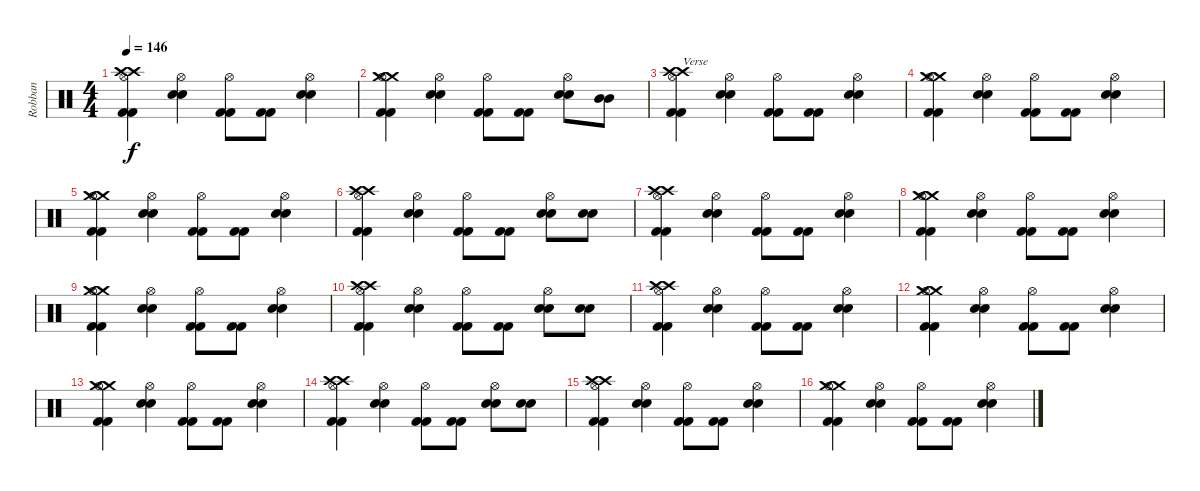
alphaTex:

\track ("Robban" "Robban") {instrument percussion}
\staff {score}
\articulation defaults
\ts (4 4)
\tempo 146
\clef neutral
\ks c
("Crash high (hit)" "Crash high (hit)" "Hi-Hat (open)" "Kick (hit) 2" "Kick (hit) 2").4{dy f} ("Hi-Hat (open)" "Electric Snare (hit)" "Electric Snare (hit)").4 ("Hi-Hat (open)" "Kick (hit) 2" "Kick (hit) 2").8 ("Kick (hit) 2" "Kick (hit) 2").8 ("Hi-Hat (open)" "Electric Snare (hit)" "Electric Snare (hit)").4 |
("Crash medium (hit)" "Crash medium (hit)" "Hi-Hat (open)" "Kick (hit) 2" "Kick (hit) 2").4 ("Hi-Hat (open)" "Electric Snare (hit)" "Electric Snare (hit)").4 ("Hi-Hat (open)" "Kick (hit) 2" "Kick (hit) 2").8 ("Kick (hit) 2" "Kick (hit) 2").8 ("Hi-Hat (open)" "Electric Snare (hit)" "Electric Snare (hit)").8 ("Mid Tom (hit)" "Mid Tom (hit)").8 |
("Crash high (hit)" "Crash high (hit)" "Hi-Hat (open)" "Kick (hit) 2" "Kick (hit) 2").4{txt "Verse"} ("Hi-Hat (open)" "Electric Snare (hit)" "Electric Snare (hit)").4 ("Hi-Hat (open)" "Kick (hit) 2" "Kick (hit) 2").8 ("Kick (hit) 2" "Kick (hit) 2").8 ("Hi-Hat (open)" "Electric Snare (hit)" "Electric Snare (hit)").4 |
("Crash medium (hit)" "Crash medium (hit)" "Hi-Hat (open)" "Kick (hit) 2" "Kick (hit) 2").4 ("Hi-Hat (open)" "Electric Snare (hit)" "Electric Snare (hit)").4 ("Hi-Hat (open)" "Kick (hit) 2" "Kick (hit) 2").8 ("Kick (hit) 2" "Kick (hit) 2").8 ("Hi-Hat (open)" "Electric Snare (hit)" "Electric Snare (hit)").4 |
("Crash medium (hit)" "Crash medium (hit)" "Hi-Hat (open)" "Kick (hit) 2" "Kick (hit) 2").4 ("Hi-Hat (open)" "Electric Snare (hit)" "Electric Snare (hit)").4 ("Hi-Hat (open)" "Kick (hit) 2" "Kick (hit) 2").8 ("Kick (hit) 2" "Kick (hit) 2").8 ("Hi-Hat (open)" "Electric Snare (hit)" "Electric Snare (hit)").4 |
("Crash high (hit)" "Crash high (hit)" "Hi-Hat (open)" "Kick (hit) 2" "Kick (hit) 2").4 ("Hi-Hat (open)" "Electric Snare (hit)" "Electric Snare (hit)").4 ("Hi-Hat (open)" "Kick (hit) 2" "Kick (hit) 2").8 ("Kick (hit) 2" "Kick (hit) 2").8 ("Hi-Hat (open)" "Electric Snare (hit)" "Electric Snare (hit)").8 ("Electric Snare (hit)" "Electric Snare (hit)").8 |
("Crash high (hit)" "Crash high (hit)" "Hi-Hat (open)" "Kick (hit) 2" "Kick (hit) 2").4 ("Hi-Hat (open)" "Electric Snare (hit)" "Electric Snare (hit)").4 ("Hi-Hat (open)" "Kick (hit) 2" "Kick (hit) 2").8 ("Kick (hit) 2" "Kick (hit) 2").8 ("Hi-Hat (open)" "Electric Snare (hit)" "Electric Snare (hit)").4 |
("Crash medium (hit)" "Crash medium (hit)" "Hi-Hat (open)" "Kick (hit) 2" "Kick (hit) 2").4 ("Hi-Hat (open)" "Electric Snare (hit)" "Electric Snare (hit)").4 ("Hi-Hat (open)" "Kick (hit) 2" "Kick (hit) 2").8 ("Kick (hit) 2" "Kick (hit) 2").8 ("Hi-Hat (open)" "Electric Snare (hit)" "Electric Snare (hit)").4 |
("Crash medium (hit)" "Crash medium (hit)" "Hi-Hat (open)" "Kick (hit) 2" "Kick (hit) 2").4 ("Hi-Hat (open)" "Electric Snare (hit)" "Electric Snare (hit)").4 ("Hi-Hat (open)" "Kick (hit) 2" "Kick (hit) 2").8 ("Kick (hit) 2" "Kick (hit) 2").8 ("Hi-Hat (open)" "Electric Snare (hit)" "Electric Snare (hit)").4 |
("Crash high (hit)" "Crash high (hit)" "Hi-Hat (open)" "Kick (hit) 2" "Kick (hit) 2").4 ("Hi-Hat (open)" "Electric Snare (hit)" "Electric Snare (hit)").4 ("Hi-Hat (open)" "Kick (hit) 2" "Kick (hit) 2").8 ("Kick (hit) 2" "Kick (hit) 2").8 ("Hi-Hat (open)" "Electric Snare (hit)" "Electric Snare (hit)").8 ("Electric Snare (hit)" "Electric Snare (hit)").8 |
("Crash high (hit)" "Crash high (hit)" "Hi-Hat (open)" "Kick (hit) 2" "Kick (hit) 2").4 ("Hi-Hat (open)" "Electric Snare (hit)" "Electric Snare (hit)").4 ("Hi-Hat (open)" "Kick (hit) 2" "Kick (hit) 2").8 ("Kick (hit) 2" "Kick (hit) 2").8 ("Hi-Hat (open)" "Electric Snare (hit)" "Electric Snare (hit)").4 |
("Crash medium (hit)" "Crash medium (hit)" "Hi-Hat (open)" "Kick (hit) 2" "Kick (hit) 2").4 ("Hi-Hat (open)" "Electric Snare (hit)" "Electric Snare (hit)").4 ("Hi-Hat (open)" "Kick (hit) 2" "Kick (hit) 2").8 ("Kick (hit) 2" "Kick (hit) 2").8 ("Hi-Hat (open)" "Electric Snare (hit)" "Electric Snare (hit)").4 |
("Crash medium (hit)" "Crash medium (hit)" "Hi-Hat (open)" "Kick (hit) 2" "Kick (hit) 2").4 ("Hi-Hat (open)" "Electric Snare (hit)" "Electric Snare (hit)").4 ("Hi-Hat (open)" "Kick (hit) 2" "Kick (hit) 2").8 ("Kick (hit) 2" "Kick (hit) 2").8 ("Hi-Hat (open)" "Electric Snare (hit)" "Electric Snare (hit)").4 |
("Crash high (hit)" "Crash high (hit)" "Hi-Hat (open)" "Kick (hit) 2" "Kick (hit) 2").4 ("Hi-Hat (open)" "Electric Snare (hit)" "Electric Snare (hit)").4 ("Hi-Hat (open)" "Kick (hit) 2" "Kick (hit) 2").8 ("Kick (hit) 2" "Kick (hit) 2").8 ("Hi-Hat (open)" "Electric Snare (hit)" "Electric Snare (hit)").8 ("Electric Snare (hit)" "Electric Snare (hit)").8 |
("Crash high (hit)" "Crash high (hit)" "Hi-Hat (open)" "Kick (hit) 2" "Kick (hit) 2").4 ("Hi-Hat (open)" "Electric Snare (hit)" "Electric Snare (hit)").4 ("Hi-Hat (open)" "Kick (hit) 2" "Kick (hit) 2").8 ("Kick (hit) 2" "Kick (hit) 2").8 ("Hi-Hat (open)" "Electric Snare (hit)" "Electric Snare (hit)").4 |
("Crash medium (hit)" "Crash medium (hit)" "Hi-Hat (open)" "Kick (hit) 2" "Kick (hit) 2").4 ("Hi-Hat (open)" "Electric Snare (hit)" "Electric Snare (hit)").4 ("Hi-Hat (open)" "Kick (hit) 2" "Kick (hit) 2").8 ("Kick (hit) 2" "Kick (hit) 2").8 ("Hi-Hat (open)" "Electric Snare (hit)" "Electric Snare (hit)").4
